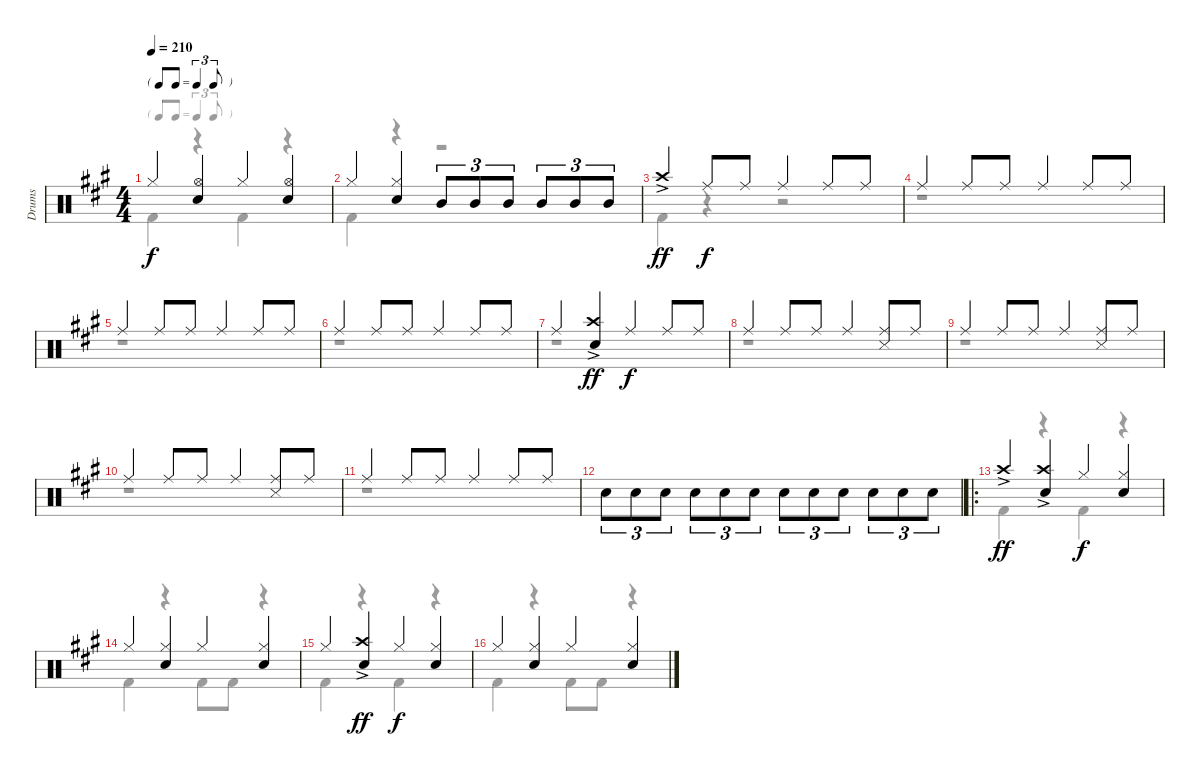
\track ("Drums" "Drums") {instrument percussion}
\staff {score}
\articulation defaults
\voice
\ts (4 4)
\tf triplet8th
\tempo 210
\clef neutral
\ks a "Hi-Hat (closed)".4{dy f}
("Hi-Hat (open)" "Snare (hit) 2").4 "Hi-Hat (closed)".4 ("Hi-Hat (open)" "Snare (hit) 2").4 |
"Hi-Hat (closed)".4 ("Hi-Hat (closed)" "Snare (hit) 2").4 "Mid Tom (hit)".8{tu (3 2)} "Mid Tom (hit)".8{tu (3 2)} "Mid Tom (hit)".8{tu (3 2)} "Mid Tom (hit)".8{tu (3 2)} "Mid Tom (hit)".8{tu (3 2)} "Mid Tom (hit)".8{tu (3 2)} |
"Crash high (hit)"{ac}.4{dy ff} "Ride (middle)".8{dy f} "Ride (middle)".8 "Ride (middle)".4 "Ride (middle)".8 "Ride (middle)".8 |
"Ride (middle)".4 "Ride (middle)".8 "Ride (middle)".8 "Ride (middle)".4 "Ride (middle)".8 "Ride (middle)".8 |
"Ride (middle)".4 "Ride (middle)".8 "Ride (middle)".8 "Ride (middle)".4 "Ride (middle)".8 "Ride (middle)".8 |
"Ride (middle)".4 "Ride (middle)".8 "Ride (middle)".8 "Ride (middle)".4 "Ride (middle)".8 "Ride (middle)".8 |
"Ride (middle)".4 ("Crash high (hit)"{ac} "Snare (hit) 2").4{dy ff} "Ride (middle)".4{dy f} "Ride (middle)".8 "Ride (middle)".8 |
"Ride (middle)".4 "Ride (middle)".8 "Ride (middle)".8 "Ride (middle)".4 ("Ride (middle)" "Snare (side stick) 3").8 "Ride (middle)".8 |
"Ride (middle)".4 "Ride (middle)".8 "Ride (middle)".8 "Ride (middle)".4 ("Ride (middle)" "Snare (side stick) 3").8 "Ride (middle)".8 |
"Ride (middle)".4 "Ride (middle)".8 "Ride (middle)".8 "Ride (middle)".4 ("Ride (middle)" "Snare (side stick) 3").8 "Ride (middle)".8 |
"Ride (middle)".4 "Ride (middle)".8 "Ride (middle)".8 "Ride (middle)".4 "Ride (middle)".8 "Ride (middle)".8 |
"Snare (hit) 2".8{tu (3 2)} "Snare (hit) 2".8{tu (3 2)} "Snare (hit) 2".8{tu (3 2)} "Snare (hit) 2".8{tu (3 2)} "Snare (hit) 2".8{tu (3 2)} "Snare (hit) 2".8{tu (3 2)} "Snare (hit) 2".8{tu (3 2)} "Snare (hit) 2".8{tu (3 2)} "Snare (hit) 2".8{tu (3 2)} "Snare (hit) 2".8{tu (3 2)} "Snare (hit) 2".8{tu (3 2)} "Snare (hit) 2".8{tu (3 2)} |
\ro "Crash high (hit)"{ac}.4{dy ff}
("Crash high (hit)"{ac} "Snare (hit) 2").4 "Hi-Hat (closed)".4{dy f} ("Hi-Hat (closed)" "Snare (hit) 2").4 |
"Hi-Hat (closed)".4 ("Hi-Hat (closed)" "Snare (hit) 2").4 "Hi-Hat (closed)".4 ("Hi-Hat (closed)" "Snare (hit) 2").4 |
"Hi-Hat (closed)".4 ("Crash high (hit)"{ac} "Snare (hit) 2").4{dy ff} "Hi-Hat (closed)".4{dy f} ("Hi-Hat (closed)" "Snare (hit) 2").4 |
"Hi-Hat (closed)".4 ("Hi-Hat (closed)" "Snare (hit) 2").4 "Hi-Hat (closed)".4 ("Hi-Hat (closed)" "Snare (hit) 2").4
\voice
\clef neutral
\ottava regular
\simile none
\ks a "Kick (hit) 2".4{dy f}
r.4 "Kick (hit) 2".4 r.4 |
"Kick (hit) 2".4 r.4 r.2 |
"Kick (hit) 2".4 r.4 r.2 |
r.1 |
r.1 |
r.1 |
r.1 |
r.1 |
r.1 |
r.1 |
r.1 |
|
"Kick (hit) 2".4 r.4 "Kick (hit) 2".4 r.4 |
"Kick (hit) 2".4 r.4 "Kick (hit) 2".8 "Kick (hit) 2".8 r.4 |
"Kick (hit) 2".4 r.4 "Kick (hit) 2".4 r.4 |
"Kick (hit) 2".4 r.4 "Kick (hit) 2".8 "Kick (hit) 2".8 r.4
